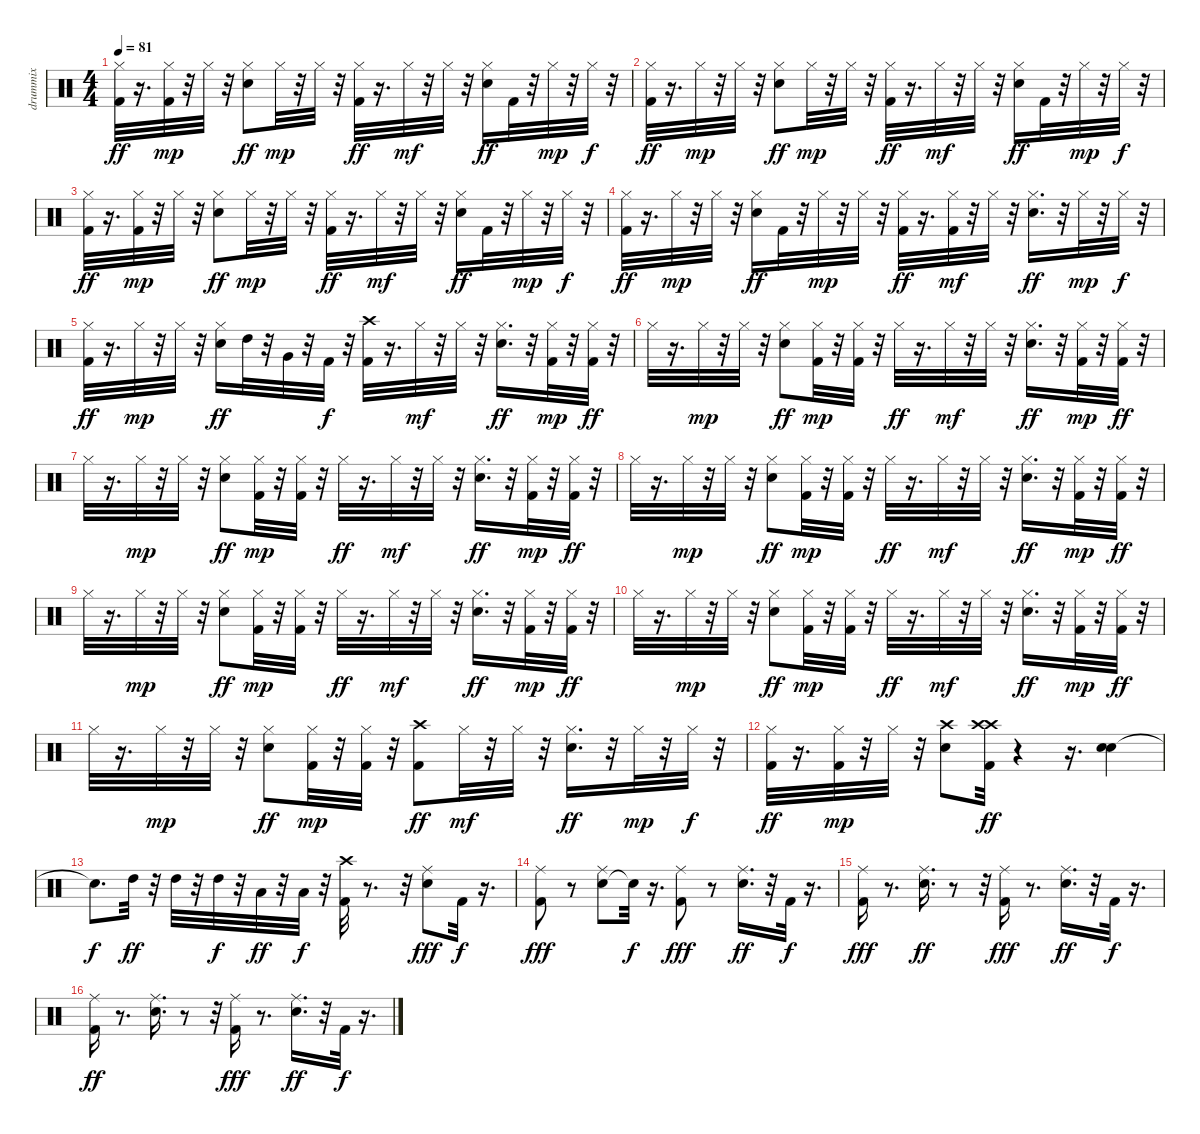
\track ("drummix " "drummix ") {instrument percussion}
\staff {score}
\articulation defaults
\ts (4 4)
\tempo 81
\clef neutral
\ks c
("Kick (hit) 2" "Hi-Hat (closed)").32{dy ff} r.16{d} ("Kick (hit) 2" "Hi-Hat (closed)").32{dy mp} r.32 "Hi-Hat (closed)".32 r.32 ("Snare (hit) 2" "Hi-Hat (closed)").8{dy ff} "Hi-Hat (closed)".32{dy mp} r.32 "Hi-Hat (closed)".32 r.32 ("Kick (hit) 2" "Hi-Hat (closed)").32{dy ff} r.16{d} "Hi-Hat (closed)".32{dy mf} r.32 "Hi-Hat (closed)".32 r.32 ("Snare (hit) 2" "Hi-Hat (closed)").16{dy ff} "Kick (hit) 2".32 r.32 "Hi-Hat (closed)".32{dy mp} r.32 "Hi-Hat (closed)".32{dy f} r.32 |
("Kick (hit) 2" "Hi-Hat (closed)").32{dy ff} r.16{d} "Hi-Hat (closed)".32{dy mp} r.32 "Hi-Hat (closed)".32 r.32 ("Snare (hit) 2" "Hi-Hat (closed)").8{dy ff} "Hi-Hat (closed)".32{dy mp} r.32 "Hi-Hat (closed)".32 r.32 ("Kick (hit) 2" "Hi-Hat (closed)").32{dy ff} r.16{d} "Hi-Hat (closed)".32{dy mf} r.32 "Hi-Hat (closed)".32 r.32 ("Snare (hit) 2" "Hi-Hat (closed)").16{dy ff} "Kick (hit) 2".32 r.32 "Hi-Hat (closed)".32{dy mp} r.32 "Hi-Hat (closed)".32{dy f} r.32 |
("Kick (hit) 2" "Hi-Hat (closed)").32{dy ff} r.16{d} ("Kick (hit) 2" "Hi-Hat (closed)").32{dy mp} r.32 "Hi-Hat (closed)".32 r.32 ("Snare (hit) 2" "Hi-Hat (closed)").8{dy ff} "Hi-Hat (closed)".32{dy mp} r.32 "Hi-Hat (closed)".32 r.32 ("Kick (hit) 2" "Hi-Hat (closed)").32{dy ff} r.16{d} "Hi-Hat (closed)".32{dy mf} r.32 "Hi-Hat (closed)".32 r.32 ("Snare (hit) 2" "Hi-Hat (closed)").16{dy ff} "Kick (hit) 2".32 r.32 "Hi-Hat (closed)".32{dy mp} r.32 "Hi-Hat (closed)".32{dy f} r.32 |
("Kick (hit) 2" "Hi-Hat (closed)").32{dy ff} r.16{d} "Hi-Hat (closed)".32{dy mp} r.32 "Hi-Hat (closed)".32 r.32 ("Snare (hit) 2" "Hi-Hat (closed)").16{dy ff} "Kick (hit) 2".32 r.32 "Hi-Hat (closed)".32{dy mp} r.32 "Hi-Hat (closed)".32 r.32 ("Kick (hit) 2" "Hi-Hat (closed)").32{dy ff} r.16{d} ("Kick (hit) 2" "Hi-Hat (closed)").32{dy mf} r.32 "Hi-Hat (closed)".32 r.32 ("Snare (hit) 2" "Hi-Hat (closed)").16{d dy ff} r.32 "Hi-Hat (closed)".32{dy mp} r.32 "Hi-Hat (closed)".32{dy f} r.32 |
("Kick (hit) 2" "Hi-Hat (closed)").32{dy ff} r.16{d} "Hi-Hat (closed)".32{dy mp} r.32 "Hi-Hat (closed)".32 r.32 ("Snare (hit) 2" "Hi-Hat (closed)").16{dy ff} "High Tom (hit)".32 r.32 "Very Low Tom (hit)".32 r.32 "Kick (hit) 2".32{dy f} r.32 ("Kick (hit) 2" "Crash high (hit)").32 r.16{d} "Hi-Hat (closed)".32{dy mf} r.32 "Hi-Hat (closed)".32 r.32 ("Snare (hit) 2" "Hi-Hat (closed)").16{d dy ff} r.32 ("Kick (hit) 2" "Hi-Hat (closed)").32{dy mp} r.32 ("Kick (hit) 2" "Hi-Hat (closed)").32{dy ff} r.32 |
"Hi-Hat (closed)".32 r.16{d} "Hi-Hat (closed)".32{dy mp} r.32 "Hi-Hat (closed)".32 r.32 ("Snare (hit) 2" "Hi-Hat (closed)").8{dy ff} ("Kick (hit) 2" "Hi-Hat (closed)").32{dy mp} r.32 ("Kick (hit) 2" "Hi-Hat (closed)").32 r.32 "Hi-Hat (closed)".32{dy ff} r.16{d} "Hi-Hat (closed)".32{dy mf} r.32 "Hi-Hat (closed)".32 r.32 ("Snare (hit) 2" "Hi-Hat (closed)").16{d dy ff} r.32 ("Kick (hit) 2" "Hi-Hat (closed)").32{dy mp} r.32 ("Kick (hit) 2" "Hi-Hat (closed)").32{dy ff} r.32 |
"Hi-Hat (closed)".32 r.16{d} "Hi-Hat (closed)".32{dy mp} r.32 "Hi-Hat (closed)".32 r.32 ("Snare (hit) 2" "Hi-Hat (closed)").8{dy ff} ("Kick (hit) 2" "Hi-Hat (closed)").32{dy mp} r.32 ("Kick (hit) 2" "Hi-Hat (closed)").32 r.32 "Hi-Hat (closed)".32{dy ff} r.16{d} "Hi-Hat (closed)".32{dy mf} r.32 "Hi-Hat (closed)".32 r.32 ("Snare (hit) 2" "Hi-Hat (closed)").16{d dy ff} r.32 ("Kick (hit) 2" "Hi-Hat (closed)").32{dy mp} r.32 ("Kick (hit) 2" "Hi-Hat (closed)").32{dy ff} r.32 |
"Hi-Hat (closed)".32 r.16{d} "Hi-Hat (closed)".32{dy mp} r.32 "Hi-Hat (closed)".32 r.32 ("Snare (hit) 2" "Hi-Hat (closed)").8{dy ff} ("Kick (hit) 2" "Hi-Hat (closed)").32{dy mp} r.32 ("Kick (hit) 2" "Hi-Hat (closed)").32 r.32 "Hi-Hat (closed)".32{dy ff} r.16{d} "Hi-Hat (closed)".32{dy mf} r.32 "Hi-Hat (closed)".32 r.32 ("Snare (hit) 2" "Hi-Hat (closed)").16{d dy ff} r.32 ("Kick (hit) 2" "Hi-Hat (closed)").32{dy mp} r.32 ("Kick (hit) 2" "Hi-Hat (closed)").32{dy ff} r.32 |
"Hi-Hat (closed)".32 r.16{d} "Hi-Hat (closed)".32{dy mp} r.32 "Hi-Hat (closed)".32 r.32 ("Snare (hit) 2" "Hi-Hat (closed)").8{dy ff} ("Kick (hit) 2" "Hi-Hat (closed)").32{dy mp} r.32 ("Kick (hit) 2" "Hi-Hat (closed)").32 r.32 "Hi-Hat (closed)".32{dy ff} r.16{d} "Hi-Hat (closed)".32{dy mf} r.32 "Hi-Hat (closed)".32 r.32 ("Snare (hit) 2" "Hi-Hat (closed)").16{d dy ff} r.32 ("Kick (hit) 2" "Hi-Hat (closed)").32{dy mp} r.32 ("Kick (hit) 2" "Hi-Hat (closed)").32{dy ff} r.32 |
"Hi-Hat (closed)".32 r.16{d} "Hi-Hat (closed)".32{dy mp} r.32 "Hi-Hat (closed)".32 r.32 ("Snare (hit) 2" "Hi-Hat (closed)").8{dy ff} ("Kick (hit) 2" "Hi-Hat (closed)").32{dy mp} r.32 ("Kick (hit) 2" "Hi-Hat (closed)").32 r.32 "Hi-Hat (closed)".32{dy ff} r.16{d} "Hi-Hat (closed)".32{dy mf} r.32 "Hi-Hat (closed)".32 r.32 ("Snare (hit) 2" "Hi-Hat (closed)").16{d dy ff} r.32 ("Kick (hit) 2" "Hi-Hat (closed)").32{dy mp} r.32 ("Kick (hit) 2" "Hi-Hat (closed)").32{dy ff} r.32 |
"Hi-Hat (closed)".32 r.16{d} "Hi-Hat (closed)".32{dy mp} r.32 "Hi-Hat (closed)".32 r.32 ("Snare (hit) 2" "Hi-Hat (closed)").8{dy ff} ("Kick (hit) 2" "Hi-Hat (closed)").32{dy mp} r.32 ("Kick (hit) 2" "Hi-Hat (closed)").32 r.32 ("Kick (hit) 2" "Crash high (hit)").8{dy ff} "Hi-Hat (closed)".32{dy mf} r.32 "Hi-Hat (closed)".32 r.32 ("Snare (hit) 2" "Hi-Hat (closed)").16{d dy ff} r.32 "Hi-Hat (closed)".32{dy mp} r.32 "Hi-Hat (closed)".32{dy f} r.32 |
("Kick (hit) 2" "Hi-Hat (closed)").32{dy ff} r.16{d} ("Kick (hit) 2" "Hi-Hat (closed)").32{dy mp} r.32 "Hi-Hat (closed)".32 r.32 ("Snare (hit) 2" "Crash high (hit)").8 ("Kick (hit) 2" "Crash high (hit)" "Crash high (hit)").32{dy ff} r.4 r.16{d} ("Snare (hit) 2" "Snare (hit) 2").4 |
"Snare (hit)"{t}.8{d dy f} "High Tom (hit)".32{dy ff} r.32 "High Tom (hit)".32 r.32 "High Tom (hit)".32{dy f} r.32 "Low Tom (hit)".32{dy ff} r.32 "Low Tom (hit)".32{dy f} r.32 ("Kick (hit) 2" "Crash high (hit)").32 r.8{d} r.32 ("Snare (hit) 2" "Ride (middle)").8{dy fff} "Kick (hit) 2".32{dy f} r.16{d} |
("Kick (hit) 2" "Ride (middle)").8{dy fff} r.8 ("Snare (hit) 2" "Ride (middle)").8 "Snare (hit)"{t}.32{dy f} r.16{d} ("Kick (hit) 2" "Ride (middle)").8{dy fff} r.8 ("Snare (hit) 2" "Ride (middle)").16{d dy ff} r.32 "Kick (hit) 2".32{dy f} r.16{d} |
("Kick (hit) 2" "Ride (middle)").16{dy fff} r.8{d} ("Snare (hit) 2" "Ride (middle)").16{d dy ff} r.8 r.32 ("Kick (hit) 2" "Ride (middle)").16{dy fff} r.8{d} ("Snare (hit) 2" "Ride (middle)").16{d dy ff} r.32 "Kick (hit) 2".32{dy f} r.16{d} |
("Kick (hit) 2" "Ride (middle)").16{dy ff} r.8{d} ("Snare (hit) 2" "Ride (middle)").16{d} r.8 r.32 ("Kick (hit) 2" "Ride (middle)").16{dy fff} r.8{d} ("Snare (hit) 2" "Ride (middle)").16{d dy ff} r.32 "Kick (hit) 2".32{dy f} r.16{d}
